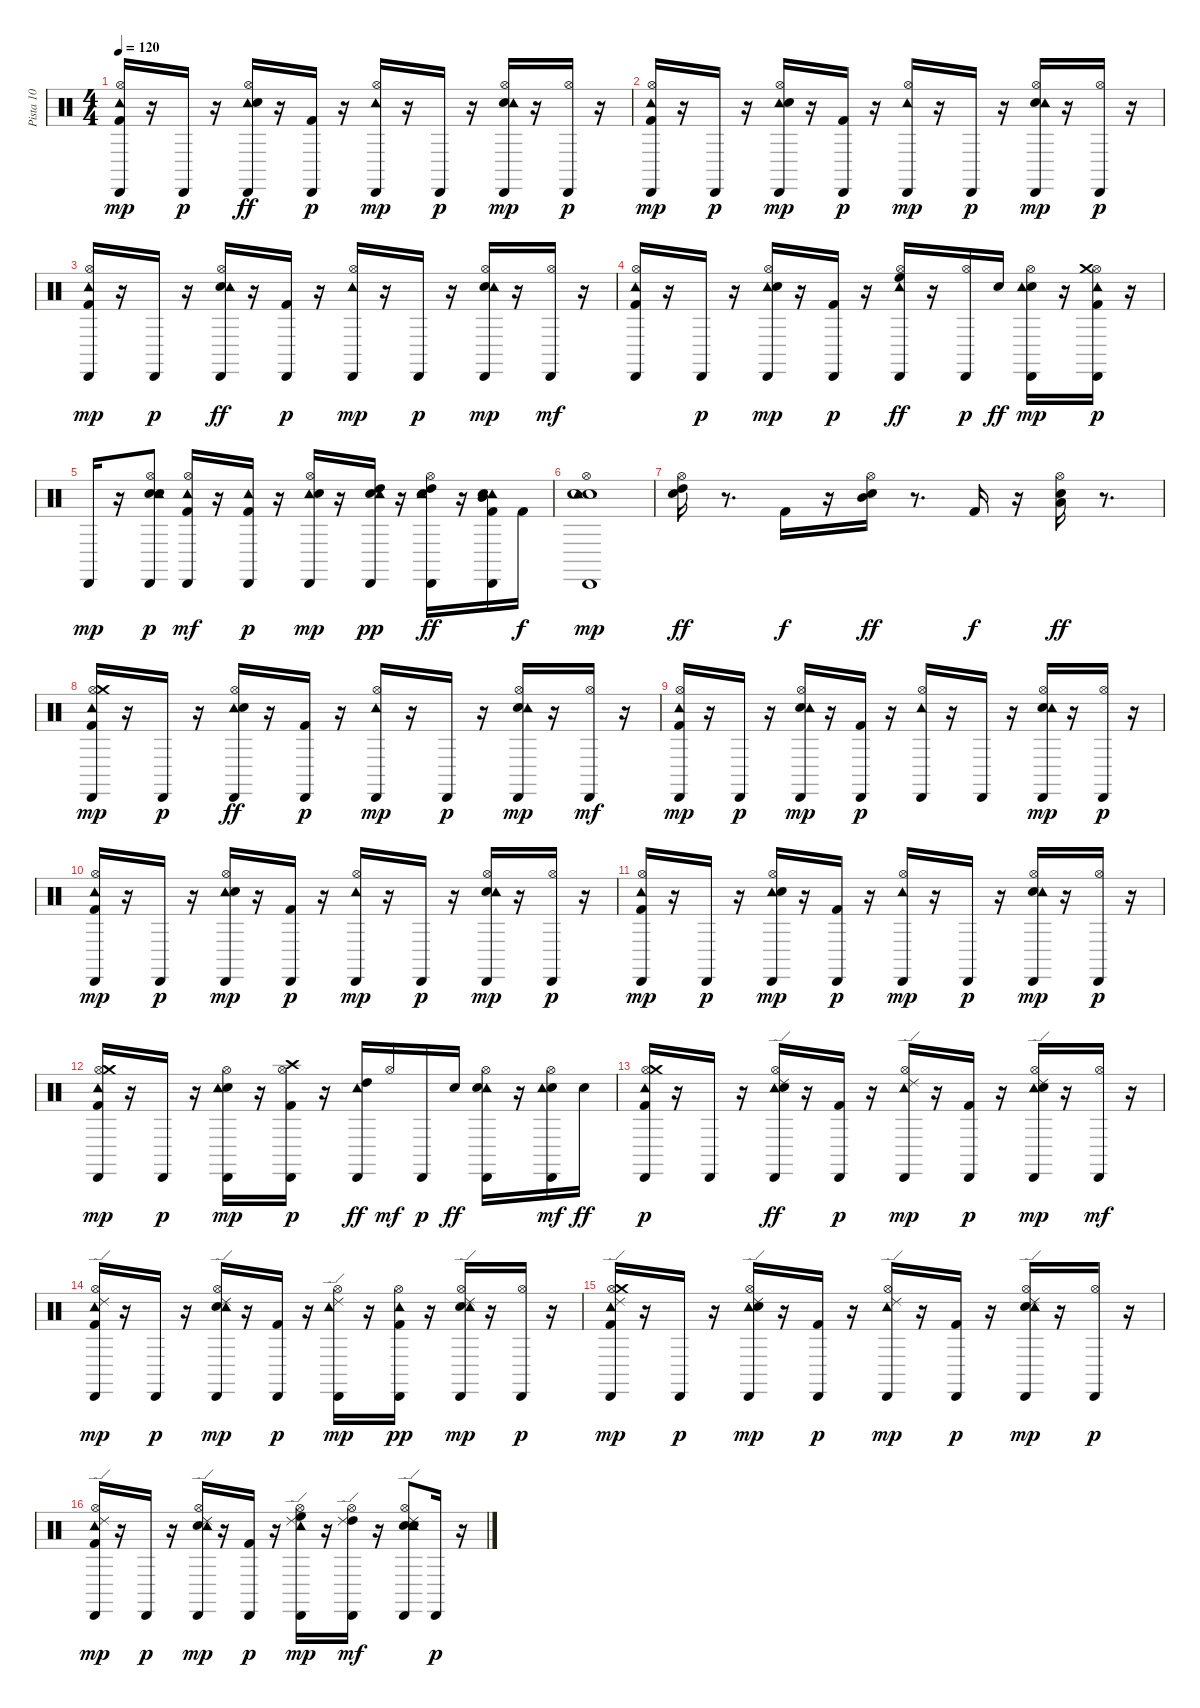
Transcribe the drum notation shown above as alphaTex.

\track ("Pista 10" "Pista 10") {instrument percussion}
\staff {score}
\articulation defaults
\ts (4 4)
\tempo 120
\clef neutral
\ks c
("Kick (hit) 2" "Hi-Hat (open)" "Cabasa (hit)" "Tambourine (hit)").16{dy mp} r.16 "Cabasa (hit)".16{dy p} r.16 ("Tambourine (hit)" "Cabasa (hit)" "Electric Snare (hit)" "Hi-Hat (open)").16{dy ff} r.16 ("Kick (hit) 2" "Cabasa (hit)").16{dy p} r.16 ("Tambourine (hit)" "Cabasa (hit)" "Hi-Hat (open)").16{dy mp} r.16 "Cabasa (hit)".16{dy p} r.16 ("Electric Snare (hit)" "Tambourine (hit)" "Cabasa (hit)" "Hi-Hat (open)").16{dy mp} r.16 ("Hi-Hat (open)" "Cabasa (hit)").16{dy p} r.16 |
("Kick (hit) 2" "Hi-Hat (open)" "Cabasa (hit)" "Tambourine (hit)").16{dy mp} r.16 "Cabasa (hit)".16{dy p} r.16 ("Tambourine (hit)" "Hi-Hat (open)" "Electric Snare (hit)" "Cabasa (hit)").16{dy mp} r.16 ("Cabasa (hit)" "Kick (hit) 2").16{dy p} r.16 ("Cabasa (hit)" "Tambourine (hit)" "Hi-Hat (open)").16{dy mp} r.16 "Cabasa (hit)".16{dy p} r.16 ("Electric Snare (hit)" "Hi-Hat (open)" "Tambourine (hit)" "Cabasa (hit)").16{dy mp} r.16 ("Hi-Hat (open)" "Cabasa (hit)").16{dy p} r.16 |
("Kick (hit) 2" "Hi-Hat (open)" "Cabasa (hit)" "Tambourine (hit)").16{dy mp} r.16 "Cabasa (hit)".16{dy p} r.16 ("Cabasa (hit)" "Hi-Hat (open)" "Electric Snare (hit)" "Tambourine (hit)").16{dy ff} r.16 ("Kick (hit) 2" "Cabasa (hit)").16{dy p} r.16 ("Cabasa (hit)" "Hi-Hat (open)" "Tambourine (hit)").16{dy mp} r.16 "Cabasa (hit)".16{dy p} r.16 ("Hi-Hat (open)" "Electric Snare (hit)" "Cabasa (hit)" "Tambourine (hit)").16{dy mp} r.16 ("Cabasa (hit)" "Hi-Hat (open)").16{dy mf} r.16 |
("Kick (hit) 2" "Hi-Hat (open)" "Cabasa (hit)" "Tambourine (hit)").16 r.16 "Cabasa (hit)".16{dy p} r.16 ("Tambourine (hit)" "Hi-Hat (open)" "Electric Snare (hit)" "Cabasa (hit)").16{dy mp} r.16 ("Cabasa (hit)" "Kick (hit) 2").16{dy p} r.16 ("Hi-Hat (open)" "Tambourine (hit)" "Cabasa (hit)" "High Floor Tom (hit)").16{dy ff} r.16 ("Hi-Hat (open)" "Cabasa (hit)").16{dy p} "Electric Snare (hit)".16{dy ff} ("Electric Snare (hit)" "Cabasa (hit)" "Tambourine (hit)" "Hi-Hat (open)").16{dy mp} r.16 ("Kick (hit) 2" "Hi-Hat (open)" "Crash medium (hit)" "Tambourine (hit)" "Cabasa (hit)").16{dy p} r.16 |
"Cabasa (hit)".16{dy mp} r.16 ("Electric Snare (hit)" "Electric Snare (hit)" "Hi-Hat (open)" "Cabasa (hit)" "Tambourine (hit)").8{dy p} ("Cabasa (hit)" "Hi-Hat (open)" "Kick (hit) 2" "Tambourine (hit)").16{dy mf} r.16 ("Tambourine (hit)" "Cabasa (hit)" "Kick (hit) 2").16{dy p} r.16 ("Hi-Hat (open)" "Tambourine (hit)" "Electric Snare (hit)" "Cabasa (hit)").16{dy mp} r.16 ("High Tom (hit)" "Electric Snare (hit)" "Cabasa (hit)" "Tambourine (hit)").16{dy pp} r.16 ("High Tom (hit)" "Tambourine (hit)" "Cabasa (hit)" "Hi-Hat (open)" "Electric Snare (hit)").16{dy ff} r.16 ("Kick (hit) 2" "Tambourine (hit)" "Cabasa (hit)" "Electric Snare (hit)" "Mid Tom (hit)").16 "Kick (hit) 2".16{dy f} |
("Electric Snare (hit)" "Electric Snare (hit)" "Hi-Hat (open)" "Tambourine (hit)" "Cabasa (hit)").1{dy mp} |
("Electric Snare (hit)" "Hi-Hat (open)" "High Tom (hit)").16{dy ff} r.8{d} "Kick (hit) 2".16{dy f} r.16 ("Mid Tom (hit)" "Electric Snare (hit)" "Hi-Hat (open)").16{dy ff} r.8{d} "Kick (hit) 2".16{dy f} r.16 ("Electric Snare (hit)" "Low Tom (hit)" "Hi-Hat (open)").16{dy ff} r.8{d} |
("Kick (hit) 2" "Hi-Hat (open)" "Crash medium (hit)" "Tambourine (hit)" "Cabasa (hit)").16{dy mp} r.16 "Cabasa (hit)".16{dy p} r.16 ("Cabasa (hit)" "Tambourine (hit)" "Electric Snare (hit)" "Hi-Hat (open)").16{dy ff} r.16 ("Kick (hit) 2" "Cabasa (hit)").16{dy p} r.16 ("Cabasa (hit)" "Tambourine (hit)" "Hi-Hat (open)").16{dy mp} r.16 "Cabasa (hit)".16{dy p} r.16 ("Electric Snare (hit)" "Tambourine (hit)" "Hi-Hat (open)" "Cabasa (hit)").16{dy mp} r.16 ("Cabasa (hit)" "Hi-Hat (open)").16{dy mf} r.16 |
("Kick (hit) 2" "Cabasa (hit)" "Tambourine (hit)" "Hi-Hat (open)").16{dy mp} r.16 "Cabasa (hit)".16{dy p} r.16 ("Hi-Hat (open)" "Electric Snare (hit)" "Cabasa (hit)" "Tambourine (hit)").16{dy mp} r.16 ("Kick (hit) 2" "Cabasa (hit)").16{dy p} r.16 ("Cabasa (hit)" "Tambourine (hit)" "Hi-Hat (open)").16 r.16 "Cabasa (hit)".16 r.16 ("Hi-Hat (open)" "Electric Snare (hit)" "Tambourine (hit)" "Cabasa (hit)").16{dy mp} r.16 ("Hi-Hat (open)" "Cabasa (hit)").16{dy p} r.16 |
("Kick (hit) 2" "Hi-Hat (open)" "Tambourine (hit)" "Cabasa (hit)").16{dy mp} r.16 "Cabasa (hit)".16{dy p} r.16 ("Tambourine (hit)" "Hi-Hat (open)" "Electric Snare (hit)" "Cabasa (hit)").16{dy mp} r.16 ("Cabasa (hit)" "Kick (hit) 2").16{dy p} r.16 ("Cabasa (hit)" "Hi-Hat (open)" "Tambourine (hit)").16{dy mp} r.16 "Cabasa (hit)".16{dy p} r.16 ("Electric Snare (hit)" "Hi-Hat (open)" "Tambourine (hit)" "Cabasa (hit)").16{dy mp} r.16 ("Hi-Hat (open)" "Cabasa (hit)").16{dy p} r.16 |
("Hi-Hat (open)" "Cabasa (hit)" "Tambourine (hit)" "Kick (hit) 2").16{dy mp} r.16 "Cabasa (hit)".16{dy p} r.16 ("Tambourine (hit)" "Hi-Hat (open)" "Electric Snare (hit)" "Cabasa (hit)").16{dy mp} r.16 ("Cabasa (hit)" "Kick (hit) 2").16{dy p} r.16 ("Hi-Hat (open)" "Cabasa (hit)" "Tambourine (hit)").16{dy mp} r.16 "Cabasa (hit)".16{dy p} r.16 ("Electric Snare (hit)" "Tambourine (hit)" "Cabasa (hit)" "Hi-Hat (open)").16{dy mp} r.16 ("Hi-Hat (open)" "Cabasa (hit)").16{dy p} r.16 |
("Kick (hit) 2" "Hi-Hat (open)" "Crash medium (hit)" "Tambourine (hit)" "Cabasa (hit)").16{dy mp} r.16 "Cabasa (hit)".16{dy p} r.16 ("Electric Snare (hit)" "Hi-Hat (open)" "Tambourine (hit)" "Cabasa (hit)").16{dy mp} r.16 ("Hi-Hat (open)" "Crash high (hit)" "Cabasa (hit)" "Kick (hit) 2").16{dy p} r.16 ("Tambourine (hit)" "Cabasa (hit)" "High Tom (hit)").16{dy ff} "Hi-Hat (open)".16{dy mf} "Cabasa (hit)".16{dy p} "Electric Snare (hit)".16{dy ff} ("Hi-Hat (open)" "Cabasa (hit)" "Tambourine (hit)" "Electric Snare (hit)").16 r.16 ("Electric Snare (hit)" "Cabasa (hit)" "Tambourine (hit)" "Hi-Hat (open)").16{dy mf} "Electric Snare (hit)".16{dy ff} |
("Kick (hit) 2" "Hi-Hat (open)" "Crash medium (hit)" "Cabasa (hit)" "Tambourine (hit)").16{dy p} r.16 "Cabasa (hit)".16 r.16 ("Hi-Hat (open)" "Cabasa (hit)" "Tambourine (hit)" "Ride (edge) 2" "Electric Snare (hit)").16{dy ff} r.16 ("Cabasa (hit)" "Kick (hit) 2").16{dy p} r.16 ("Ride (edge) 2" "Hi-Hat (open)" "Tambourine (hit)" "Cabasa (hit)").16{dy mp} r.16 ("Kick (hit) 2" "Cabasa (hit)").16{dy p} r.16 ("Tambourine (hit)" "Electric Snare (hit)" "Hi-Hat (open)" "Ride (edge) 2" "Cabasa (hit)").16{dy mp} r.16 ("Cabasa (hit)" "Hi-Hat (open)").16{dy mf} r.16 |
("Kick (hit) 2" "Hi-Hat (open)" "Ride (edge) 2" "Cabasa (hit)" "Tambourine (hit)").16{dy mp} r.16 "Cabasa (hit)".16{dy p} r.16 ("Electric Snare (hit)" "Ride (edge) 2" "Cabasa (hit)" "Tambourine (hit)" "Hi-Hat (open)").16{dy mp} r.16 ("Kick (hit) 2" "Cabasa (hit)").16{dy p} r.16 ("Hi-Hat (open)" "Tambourine (hit)" "Ride (edge) 2" "Cabasa (hit)").16{dy mp} r.16 ("Hi-Hat (open)" "Kick (hit) 2" "Cabasa (hit)" "Tambourine (hit)").16{dy pp} r.16 ("Hi-Hat (open)" "Ride (edge) 2" "Electric Snare (hit)" "Tambourine (hit)" "Cabasa (hit)").16{dy mp} r.16 ("Hi-Hat (open)" "Cabasa (hit)").16{dy p} r.16 |
("Kick (hit) 2" "Hi-Hat (open)" "Crash medium (hit)" "Ride (edge) 2" "Cabasa (hit)" "Tambourine (hit)").16{dy mp} r.16 "Cabasa (hit)".16{dy p} r.16 ("Ride (edge) 2" "Tambourine (hit)" "Electric Snare (hit)" "Hi-Hat (open)" "Cabasa (hit)").16{dy mp} r.16 ("Kick (hit) 2" "Cabasa (hit)").16{dy p} r.16 ("Tambourine (hit)" "Ride (edge) 2" "Hi-Hat (open)" "Cabasa (hit)").16{dy mp} r.16 ("Kick (hit) 2" "Cabasa (hit)").16{dy p} r.16 ("Electric Snare (hit)" "Tambourine (hit)" "Hi-Hat (open)" "Ride (edge) 2" "Cabasa (hit)").16{dy mp} r.16 ("Hi-Hat (open)" "Cabasa (hit)").16{dy p} r.16 |
("Kick (hit) 2" "Tambourine (hit)" "Cabasa (hit)" "Hi-Hat (open)" "Ride (edge) 2").16{dy mp} r.16 "Cabasa (hit)".16{dy p} r.16 ("Electric Snare (hit)" "Hi-Hat (open)" "Ride (edge) 2" "Cabasa (hit)" "Tambourine (hit)").16{dy mp} r.16 ("Kick (hit) 2" "Cabasa (hit)").16{dy p} r.16 ("Hi-Hat (open)" "Ride (edge) 2" "Tambourine (hit)" "Cabasa (hit)" "High Floor Tom (hit)").16{dy mp} r.16 ("High Tom (hit)" "Ride (edge) 2" "Cabasa (hit)" "Hi-Hat (open)").16{dy mf} r.16 ("Electric Snare (hit)" "Tambourine (hit)" "Cabasa (hit)" "Electric Snare (hit)" "Hi-Hat (open)" "Ride (edge) 2").8 "Cabasa (hit)".16{dy p} r.16
